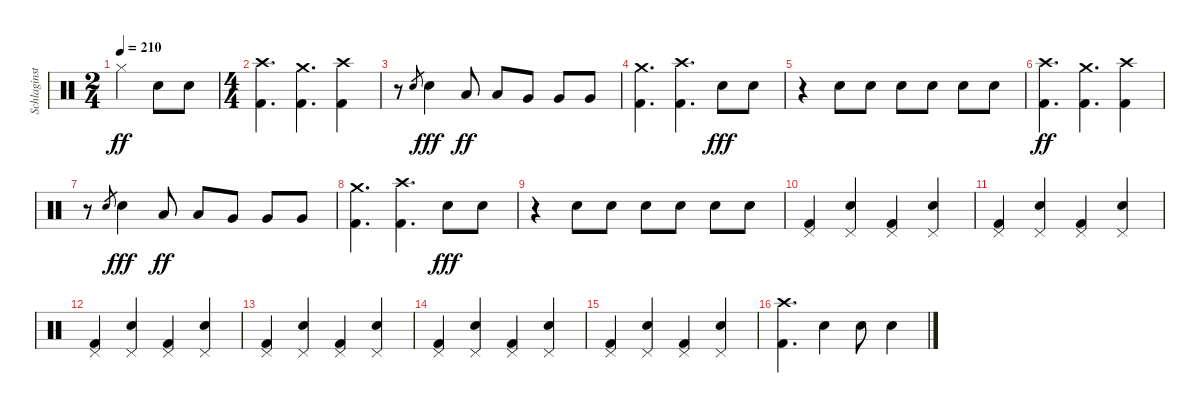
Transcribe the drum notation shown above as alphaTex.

\track ("Schlaginstrumente - Auswahl" "Schlaginst") {instrument percussion}
\staff {score}
\articulation defaults
\ts (2 4)
\tempo 210
\clef neutral
\ks c "Hi-Hat (closed)".4{dy ff} "Electric Snare (hit)".8 "Electric Snare (hit)".8
|
\ts (4 4)
("Crash high (hit)" "Kick (hit) 2").4{d} ("Crash medium (hit)" "Kick (hit) 2").4{d} ("Crash high (hit)" "Kick (hit) 2").4 |
r.8 "Electric Snare (hit)".8{gr} "Electric Snare (hit)".4{dy fff} "Low Tom (hit)".8{dy ff} "Low Tom (hit)".8 "Very Low Tom (hit)".8 "Very Low Tom (hit)".8 "Very Low Tom (hit)".8 |
("Crash medium (hit)" "Kick (hit) 2").4{d} ("Crash high (hit)" "Kick (hit) 2").4{d} "Electric Snare (hit)".8{dy fff} "Electric Snare (hit)".8 |
r.4 "Electric Snare (hit)".8 "Electric Snare (hit)".8 "Electric Snare (hit)".8 "Electric Snare (hit)".8 "Electric Snare (hit)".8 "Electric Snare (hit)".8 |
("Crash high (hit)" "Kick (hit) 2").4{d dy ff} ("Crash medium (hit)" "Kick (hit) 2").4{d} ("Crash high (hit)" "Kick (hit) 2").4 |
r.8 "Electric Snare (hit)".8{gr} "Electric Snare (hit)".4{dy fff} "Low Tom (hit)".8{dy ff} "Low Tom (hit)".8 "Very Low Tom (hit)".8 "Very Low Tom (hit)".8 "Very Low Tom (hit)".8 |
("Crash medium (hit)" "Kick (hit) 2").4{d} ("Crash high (hit)" "Kick (hit) 2").4{d} "Electric Snare (hit)".8{dy fff} "Electric Snare (hit)".8 |
r.4 "Electric Snare (hit)".8 "Electric Snare (hit)".8 "Electric Snare (hit)".8 "Electric Snare (hit)".8 "Electric Snare (hit)".8 "Electric Snare (hit)".8 |
("Pedal Hi-Hat (hit)" "Kick (hit) 2").4 ("Pedal Hi-Hat (hit)" "Electric Snare (hit)").4 ("Pedal Hi-Hat (hit)" "Kick (hit) 2").4 ("Pedal Hi-Hat (hit)" "Electric Snare (hit)").4 |
("Pedal Hi-Hat (hit)" "Kick (hit) 2").4 ("Pedal Hi-Hat (hit)" "Electric Snare (hit)").4 ("Pedal Hi-Hat (hit)" "Kick (hit) 2").4 ("Pedal Hi-Hat (hit)" "Electric Snare (hit)").4 |
("Pedal Hi-Hat (hit)" "Kick (hit) 2").4 ("Pedal Hi-Hat (hit)" "Electric Snare (hit)").4 ("Pedal Hi-Hat (hit)" "Kick (hit) 2").4 ("Pedal Hi-Hat (hit)" "Electric Snare (hit)").4 |
("Pedal Hi-Hat (hit)" "Kick (hit) 2").4 ("Pedal Hi-Hat (hit)" "Electric Snare (hit)").4 ("Pedal Hi-Hat (hit)" "Kick (hit) 2").4 ("Pedal Hi-Hat (hit)" "Electric Snare (hit)").4 |
("Pedal Hi-Hat (hit)" "Kick (hit) 2").4 ("Pedal Hi-Hat (hit)" "Electric Snare (hit)").4 ("Pedal Hi-Hat (hit)" "Kick (hit) 2").4 ("Pedal Hi-Hat (hit)" "Electric Snare (hit)").4 |
("Pedal Hi-Hat (hit)" "Kick (hit) 2").4 ("Pedal Hi-Hat (hit)" "Electric Snare (hit)").4 ("Pedal Hi-Hat (hit)" "Kick (hit) 2").4 ("Pedal Hi-Hat (hit)" "Electric Snare (hit)").4 |
("Crash high (hit)" "Kick (hit) 2").4{d} "Electric Snare (hit)".4 "Electric Snare (hit)".8 "Electric Snare (hit)".4
